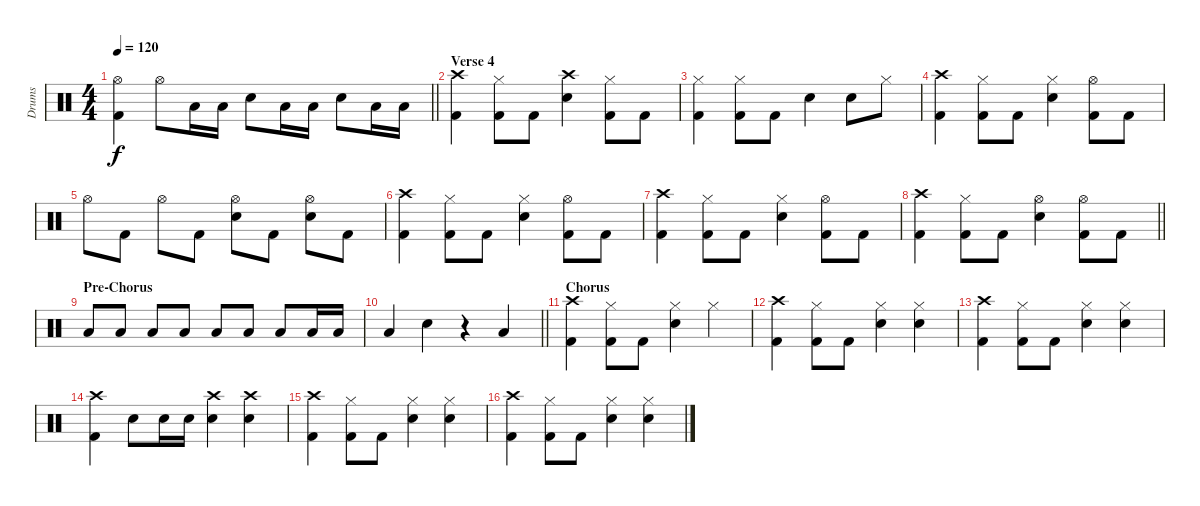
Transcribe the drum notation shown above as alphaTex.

\track ("Drums" "Drums") {instrument percussion}
\staff {score}
\articulation defaults
\ts (4 4)
\tempo 120
\clef neutral
\barLineRight lightlight
\ks c
("Hi-Hat (open)" "Kick (hit) 2").4{dy f} "Hi-Hat (open)".8 "Low Tom (hit)".16 "Low Tom (hit)".16 "Snare (hit) 2".8 "Low Tom (hit)".16 "Low Tom (hit)".16 "Snare (hit) 2".8 "Low Tom (hit)".16 "Low Tom (hit)".16 |
\section ("" "Verse 4")
("Crash high (hit)" "Kick (hit) 2").4 ("Hi-Hat (closed)" "Kick (hit) 2").8 "Kick (hit) 2".8 ("Crash high (hit)" "Snare (hit) 2").4 ("Hi-Hat (closed)" "Kick (hit) 2").8 "Kick (hit) 2".8 |
("Hi-Hat (closed)" "Kick (hit) 2").4 ("Hi-Hat (closed)" "Kick (hit) 2").8 "Kick (hit) 2".8 "Snare (hit) 2".4 "Snare (hit) 2".8 "Hi-Hat (closed)".8 |
("Crash high (hit)" "Kick (hit) 2").4 ("Hi-Hat (closed)" "Kick (hit) 2").8 "Kick (hit) 2".8 ("Hi-Hat (closed)" "Snare (hit) 2").4 ("Hi-Hat (open)" "Kick (hit) 2").8 "Kick (hit) 2".8 |
"Hi-Hat (open)".8 "Kick (hit) 2".8 "Hi-Hat (open)".8 "Kick (hit) 2".8 ("Hi-Hat (open)" "Snare (hit) 2").8 "Kick (hit) 2".8 ("Hi-Hat (open)" "Snare (hit) 2").8 "Kick (hit) 2".8 |
("Crash high (hit)" "Kick (hit) 2").4 ("Hi-Hat (closed)" "Kick (hit) 2").8 "Kick (hit) 2".8 ("Hi-Hat (closed)" "Snare (hit) 2").4 ("Hi-Hat (open)" "Kick (hit) 2").8 "Kick (hit) 2".8 |
("Crash high (hit)" "Kick (hit) 2").4 ("Hi-Hat (closed)" "Kick (hit) 2").8 "Kick (hit) 2".8 ("Hi-Hat (closed)" "Snare (hit) 2").4 ("Hi-Hat (open)" "Kick (hit) 2").8 "Kick (hit) 2".8 |
\barLineRight lightlight
("Crash high (hit)" "Kick (hit) 2").4 ("Hi-Hat (closed)" "Kick (hit) 2").8 "Kick (hit) 2".8 ("Hi-Hat (open)" "Snare (hit) 2").4 ("Hi-Hat (open)" "Kick (hit) 2").8 "Kick (hit) 2".8 |
\section ("" "Pre-Chorus")
"Low Tom (hit)".8 "Low Tom (hit)".8 "Low Tom (hit)".8 "Low Tom (hit)".8 "Low Tom (hit)".8 "Low Tom (hit)".8 "Low Tom (hit)".8 "Low Tom (hit)".16 "Low Tom (hit)".16 |
\barLineRight lightlight "Low Tom (hit)".4 "Snare (hit) 2".4
r.4 "Low Tom (hit)".4 |
\section ("" "Chorus")
("Crash high (hit)" "Kick (hit) 2").4 ("Hi-Hat (closed)" "Kick (hit) 2").8 "Kick (hit) 2".8 ("Hi-Hat (closed)" "Snare (hit) 2").4 "Hi-Hat (closed)".4 |
("Crash high (hit)" "Kick (hit) 2").4 ("Hi-Hat (closed)" "Kick (hit) 2").8 "Kick (hit) 2".8 ("Hi-Hat (closed)" "Snare (hit) 2").4 ("Hi-Hat (closed)" "Snare (hit) 2").4 |
("Crash high (hit)" "Kick (hit) 2").4 ("Hi-Hat (closed)" "Kick (hit) 2").8 "Kick (hit) 2".8 ("Hi-Hat (closed)" "Snare (hit) 2").4 ("Hi-Hat (closed)" "Snare (hit) 2").4 |
("Crash high (hit)" "Kick (hit) 2").4 "Snare (hit) 2".8 "Snare (hit) 2".16 "Snare (hit) 2".16 ("Crash high (hit)" "Snare (hit) 2").4 ("Crash high (hit)" "Snare (hit) 2").4 |
("Crash high (hit)" "Kick (hit) 2").4 ("Hi-Hat (closed)" "Kick (hit) 2").8 "Kick (hit) 2".8 ("Hi-Hat (closed)" "Snare (hit) 2").4 ("Hi-Hat (closed)" "Snare (hit) 2").4 |
("Crash high (hit)" "Kick (hit) 2").4 ("Hi-Hat (closed)" "Kick (hit) 2").8 "Kick (hit) 2".8 ("Hi-Hat (closed)" "Snare (hit) 2").4 ("Hi-Hat (closed)" "Snare (hit) 2").4
